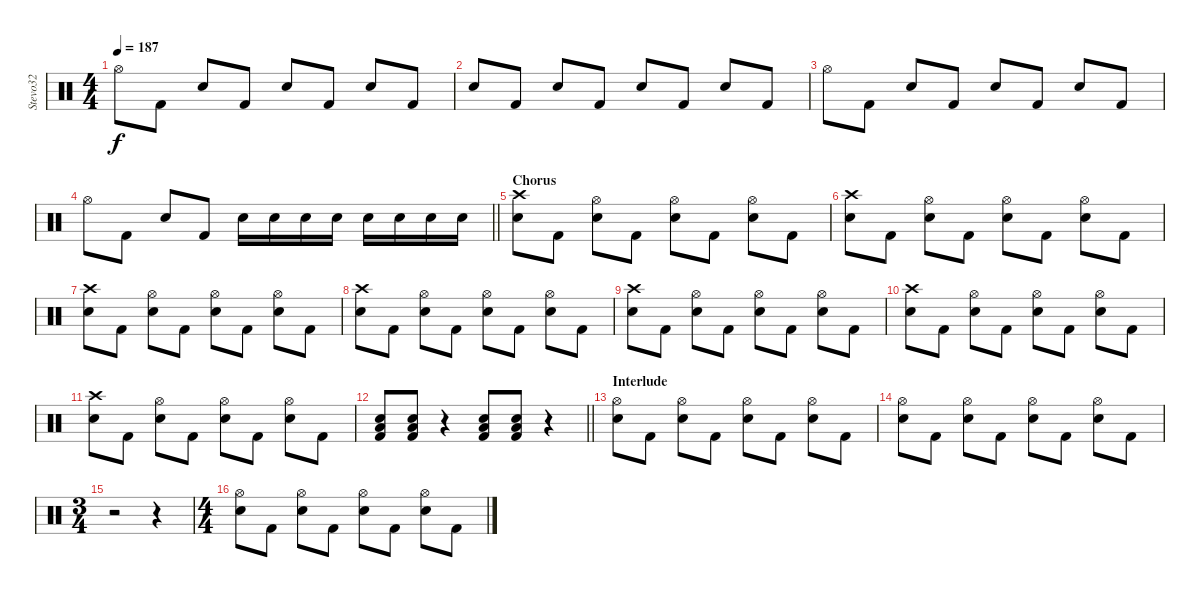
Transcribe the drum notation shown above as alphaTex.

\track ("Stevo32" "Stevo32") {instrument percussion}
\staff {score}
\articulation defaults
\ts (4 4)
\tempo 187
\clef neutral
\ks c "Hi-Hat (open)".8{dy f} "Kick (hit) 2".8 "Snare (hit) 2".8 "Kick (hit) 2".8 "Snare (hit) 2".8 "Kick (hit) 2".8 "Snare (hit) 2".8 "Kick (hit) 2".8
|
"Snare (hit) 2".8 "Kick (hit) 2".8 "Snare (hit) 2".8 "Kick (hit) 2".8 "Snare (hit) 2".8 "Kick (hit) 2".8 "Snare (hit) 2".8 "Kick (hit) 2".8 |
"Hi-Hat (open)".8 "Kick (hit) 2".8 "Snare (hit) 2".8 "Kick (hit) 2".8 "Snare (hit) 2".8 "Kick (hit) 2".8 "Snare (hit) 2".8 "Kick (hit) 2".8 |
\barLineRight lightlight "Hi-Hat (open)".8 "Kick (hit) 2".8 "Snare (hit) 2".8 "Kick (hit) 2".8 "Snare (hit) 2".16 "Snare (hit) 2".16 "Snare (hit) 2".16 "Snare (hit) 2".16 "Snare (hit) 2".16 "Snare (hit) 2".16 "Snare (hit) 2".16 "Snare (hit) 2".16
|
\section ("" "Chorus")
("Crash high (hit)" "Snare (hit) 2").8 "Kick (hit) 2".8 ("Snare (hit) 2" "Hi-Hat (open)").8 "Kick (hit) 2".8 ("Snare (hit) 2" "Hi-Hat (open)").8 "Kick (hit) 2".8 ("Snare (hit) 2" "Hi-Hat (open)").8 "Kick (hit) 2".8 |
("Crash high (hit)" "Snare (hit) 2").8 "Kick (hit) 2".8 ("Snare (hit) 2" "Hi-Hat (open)").8 "Kick (hit) 2".8 ("Snare (hit) 2" "Hi-Hat (open)").8 "Kick (hit) 2".8 ("Snare (hit) 2" "Hi-Hat (open)").8 "Kick (hit) 2".8 |
("Crash high (hit)" "Snare (hit) 2").8 "Kick (hit) 2".8 ("Snare (hit) 2" "Hi-Hat (open)").8 "Kick (hit) 2".8 ("Snare (hit) 2" "Hi-Hat (open)").8 "Kick (hit) 2".8 ("Snare (hit) 2" "Hi-Hat (open)").8 "Kick (hit) 2".8 |
("Crash high (hit)" "Snare (hit) 2").8 "Kick (hit) 2".8 ("Snare (hit) 2" "Hi-Hat (open)").8 "Kick (hit) 2".8 ("Snare (hit) 2" "Hi-Hat (open)").8 "Kick (hit) 2".8 ("Snare (hit) 2" "Hi-Hat (open)").8 "Kick (hit) 2".8 |
("Crash high (hit)" "Snare (hit) 2").8 "Kick (hit) 2".8 ("Snare (hit) 2" "Hi-Hat (open)").8 "Kick (hit) 2".8 ("Snare (hit) 2" "Hi-Hat (open)").8 "Kick (hit) 2".8 ("Snare (hit) 2" "Hi-Hat (open)").8 "Kick (hit) 2".8 |
("Crash high (hit)" "Snare (hit) 2").8 "Kick (hit) 2".8 ("Snare (hit) 2" "Hi-Hat (open)").8 "Kick (hit) 2".8 ("Snare (hit) 2" "Hi-Hat (open)").8 "Kick (hit) 2".8 ("Snare (hit) 2" "Hi-Hat (open)").8 "Kick (hit) 2".8 |
("Crash high (hit)" "Snare (hit) 2").8 "Kick (hit) 2".8 ("Snare (hit) 2" "Hi-Hat (open)").8 "Kick (hit) 2".8 ("Snare (hit) 2" "Hi-Hat (open)").8 "Kick (hit) 2".8 ("Snare (hit) 2" "Hi-Hat (open)").8 "Kick (hit) 2".8 |
\barLineRight lightlight
("Kick (hit) 2" "Low Floor Tom (hit)" "Snare (hit) 2").8 ("Kick (hit) 2" "Low Floor Tom (hit)" "Snare (hit) 2").8 r.4 ("Kick (hit) 2" "Low Floor Tom (hit)" "Snare (hit) 2").8 ("Kick (hit) 2" "Low Floor Tom (hit)" "Snare (hit) 2").8 r.4 |
\section ("" "Interlude")
("Snare (hit) 2" "Hi-Hat (open)").8 "Kick (hit) 2".8 ("Snare (hit) 2" "Hi-Hat (open)").8 "Kick (hit) 2".8 ("Snare (hit) 2" "Hi-Hat (open)").8 "Kick (hit) 2".8 ("Snare (hit) 2" "Hi-Hat (open)").8 "Kick (hit) 2".8 |
("Snare (hit) 2" "Hi-Hat (open)").8 "Kick (hit) 2".8 ("Snare (hit) 2" "Hi-Hat (open)").8 "Kick (hit) 2".8 ("Snare (hit) 2" "Hi-Hat (open)").8 "Kick (hit) 2".8 ("Snare (hit) 2" "Hi-Hat (open)").8 "Kick (hit) 2".8 |
\ts (3 4)
r.2 r.4 |
\ts (4 4)
("Snare (hit) 2" "Hi-Hat (open)").8 "Kick (hit) 2".8 ("Snare (hit) 2" "Hi-Hat (open)").8 "Kick (hit) 2".8 ("Snare (hit) 2" "Hi-Hat (open)").8 "Kick (hit) 2".8 ("Snare (hit) 2" "Hi-Hat (open)").8 "Kick (hit) 2".8
